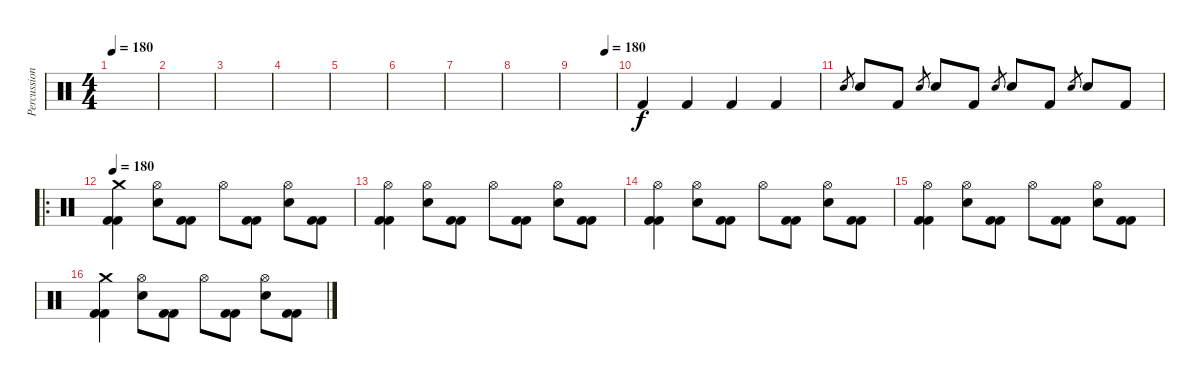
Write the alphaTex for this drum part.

\track ("Percussioni" "Percussion") {instrument percussion}
\staff {score}
\articulation defaults
\ts (4 4)
\tempo 180
\tempo 112
\tempo 180
\clef neutral
\ks c
|
|
|
|
|
|
|
|
\tempo (180 0.75)
|
"Kick (hit) 2".4 "Kick (hit) 2".4 "Kick (hit) 2".4 "Kick (hit) 2".4 |
"Electric Snare (hit)".8{gr} "Electric Snare (hit)".8 "Kick (hit) 2".8 "Electric Snare (hit)".8{gr} "Electric Snare (hit)".8 "Kick (hit) 2".8 "Electric Snare (hit)".8{gr} "Electric Snare (hit)".8 "Kick (hit) 2".8 "Electric Snare (hit)".8{gr} "Electric Snare (hit)".8 "Kick (hit) 2".8 |
\ro
\tempo 180
("Crash medium (hit)" "Kick (hit) 2" "Kick (hit) 2").4 ("Hi-Hat (open)" "Electric Snare (hit)").8 ("Kick (hit) 2" "Kick (hit) 2").8 "Hi-Hat (open)".8 ("Kick (hit) 2" "Kick (hit) 2").8 ("Hi-Hat (open)" "Electric Snare (hit)").8 ("Kick (hit) 2" "Kick (hit) 2").8 |
("Hi-Hat (open)" "Kick (hit) 2" "Kick (hit) 2").4 ("Hi-Hat (open)" "Electric Snare (hit)").8 ("Kick (hit) 2" "Kick (hit) 2").8 "Hi-Hat (open)".8 ("Kick (hit) 2" "Kick (hit) 2").8 ("Hi-Hat (open)" "Electric Snare (hit)").8 ("Kick (hit) 2" "Kick (hit) 2").8 |
("Hi-Hat (open)" "Kick (hit) 2" "Kick (hit) 2").4 ("Hi-Hat (open)" "Electric Snare (hit)").8 ("Kick (hit) 2" "Kick (hit) 2").8 "Hi-Hat (open)".8 ("Kick (hit) 2" "Kick (hit) 2").8 ("Hi-Hat (open)" "Electric Snare (hit)").8 ("Kick (hit) 2" "Kick (hit) 2").8 |
("Hi-Hat (open)" "Kick (hit) 2" "Kick (hit) 2").4 ("Hi-Hat (open)" "Electric Snare (hit)").8 ("Kick (hit) 2" "Kick (hit) 2").8 "Hi-Hat (open)".8 ("Kick (hit) 2" "Kick (hit) 2").8 ("Hi-Hat (open)" "Electric Snare (hit)").8 ("Kick (hit) 2" "Kick (hit) 2").8 |
("Crash medium (hit)" "Kick (hit) 2" "Kick (hit) 2").4 ("Hi-Hat (open)" "Electric Snare (hit)").8 ("Kick (hit) 2" "Kick (hit) 2").8 "Hi-Hat (open)".8 ("Kick (hit) 2" "Kick (hit) 2").8 ("Hi-Hat (open)" "Electric Snare (hit)").8 ("Kick (hit) 2" "Kick (hit) 2").8
